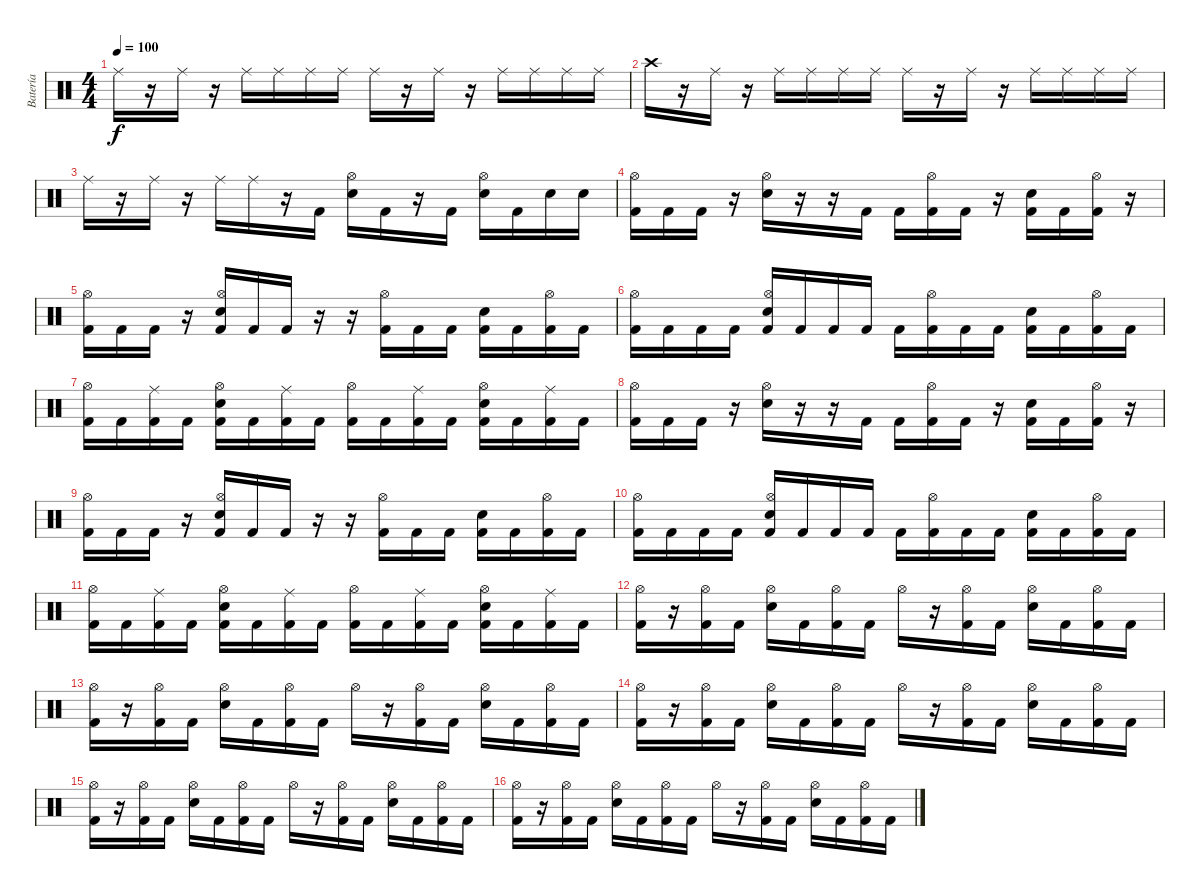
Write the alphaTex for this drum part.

\track ("Batería" "Batería") {instrument percussion}
\staff {score}
\articulation defaults
\ts (4 4)
\tempo 100
\clef neutral
\ks c "Ride (middle)".16{dy f}
r.16 "Ride (middle)".16 r.16 "Ride (middle)".16 "Ride (middle)".16 "Ride (middle)".16 "Ride (middle)".16 "Ride (middle)".16 r.16 "Ride (middle)".16 r.16 "Ride (middle)".16 "Ride (middle)".16 "Ride (middle)".16 "Ride (middle)".16 |
"Crash high (hit)".16 r.16 "Ride (middle)".16 r.16 "Ride (middle)".16 "Ride (middle)".16 "Ride (middle)".16 "Ride (middle)".16 "Ride (middle)".16 r.16 "Ride (middle)".16 r.16 "Ride (middle)".16 "Ride (middle)".16 "Ride (middle)".16 "Ride (middle)".16 |
"Ride (middle)".16 r.16 "Ride (middle)".16 r.16 "Ride (middle)".16 "Ride (middle)".16 r.16 "Kick (hit) 2".16 ("Hi-Hat (open)" "Snare (hit) 2").16 "Kick (hit) 2".16 r.16 "Kick (hit) 2".16 ("Hi-Hat (open)" "Snare (hit) 2").16 "Kick (hit) 2".16 "Snare (hit) 2".16 "Snare (hit) 2".16 |
("Hi-Hat (open)" "Kick (hit) 2").16 "Kick (hit) 2".16 "Kick (hit) 2".16 r.16 ("Hi-Hat (open)" "Snare (hit) 2").16 r.16 r.16 "Kick (hit) 2".16 "Kick (hit) 2".16 ("Hi-Hat (open)" "Kick (hit) 2").16 "Kick (hit) 2".16 r.16 ("Snare (hit) 2" "Kick (hit) 2").16 "Kick (hit) 2".16 ("Hi-Hat (open)" "Kick (hit) 2").16 r.16 |
("Hi-Hat (open)" "Kick (hit) 2").16 "Kick (hit) 2".16 "Kick (hit) 2".16 r.16 ("Hi-Hat (open)" "Snare (hit) 2" "Kick (hit) 2").16 "Kick (hit) 2".16 "Kick (hit) 2".16 r.16 r.16 ("Hi-Hat (open)" "Kick (hit) 2").16 "Kick (hit) 2".16 "Kick (hit) 2".16 ("Snare (hit) 2" "Kick (hit) 2").16 "Kick (hit) 2".16 ("Hi-Hat (open)" "Kick (hit) 2").16 "Kick (hit) 2".16 |
("Hi-Hat (open)" "Kick (hit) 2").16 "Kick (hit) 2".16 "Kick (hit) 2".16 "Kick (hit) 2".16 ("Hi-Hat (open)" "Snare (hit) 2" "Kick (hit) 2").16 "Kick (hit) 2".16 "Kick (hit) 2".16 "Kick (hit) 2".16 "Kick (hit) 2".16 ("Hi-Hat (open)" "Kick (hit) 2").16 "Kick (hit) 2".16 "Kick (hit) 2".16 ("Snare (hit) 2" "Kick (hit) 2").16 "Kick (hit) 2".16 ("Hi-Hat (open)" "Kick (hit) 2").16 "Kick (hit) 2".16 |
("Hi-Hat (open)" "Kick (hit) 2").16 "Kick (hit) 2".16 ("Ride (middle)" "Kick (hit) 2").16 "Kick (hit) 2".16 ("Hi-Hat (open)" "Snare (hit) 2" "Kick (hit) 2").16 "Kick (hit) 2".16 ("Ride (middle)" "Kick (hit) 2").16 "Kick (hit) 2".16 ("Hi-Hat (open)" "Kick (hit) 2").16 "Kick (hit) 2".16 ("Ride (middle)" "Kick (hit) 2").16 "Kick (hit) 2".16 ("Hi-Hat (open)" "Snare (hit) 2" "Kick (hit) 2").16 "Kick (hit) 2".16 ("Ride (middle)" "Kick (hit) 2").16 "Kick (hit) 2".16 |
("Hi-Hat (open)" "Kick (hit) 2").16 "Kick (hit) 2".16 "Kick (hit) 2".16 r.16 ("Hi-Hat (open)" "Snare (hit) 2").16 r.16 r.16 "Kick (hit) 2".16 "Kick (hit) 2".16 ("Hi-Hat (open)" "Kick (hit) 2").16 "Kick (hit) 2".16 r.16 ("Snare (hit) 2" "Kick (hit) 2").16 "Kick (hit) 2".16 ("Hi-Hat (open)" "Kick (hit) 2").16 r.16 |
("Hi-Hat (open)" "Kick (hit) 2").16 "Kick (hit) 2".16 "Kick (hit) 2".16 r.16 ("Hi-Hat (open)" "Snare (hit) 2" "Kick (hit) 2").16 "Kick (hit) 2".16 "Kick (hit) 2".16 r.16 r.16 ("Hi-Hat (open)" "Kick (hit) 2").16 "Kick (hit) 2".16 "Kick (hit) 2".16 ("Snare (hit) 2" "Kick (hit) 2").16 "Kick (hit) 2".16 ("Hi-Hat (open)" "Kick (hit) 2").16 "Kick (hit) 2".16 |
("Hi-Hat (open)" "Kick (hit) 2").16 "Kick (hit) 2".16 "Kick (hit) 2".16 "Kick (hit) 2".16 ("Hi-Hat (open)" "Snare (hit) 2" "Kick (hit) 2").16 "Kick (hit) 2".16 "Kick (hit) 2".16 "Kick (hit) 2".16 "Kick (hit) 2".16 ("Hi-Hat (open)" "Kick (hit) 2").16 "Kick (hit) 2".16 "Kick (hit) 2".16 ("Snare (hit) 2" "Kick (hit) 2").16 "Kick (hit) 2".16 ("Hi-Hat (open)" "Kick (hit) 2").16 "Kick (hit) 2".16 |
("Hi-Hat (open)" "Kick (hit) 2").16 "Kick (hit) 2".16 ("Ride (middle)" "Kick (hit) 2").16 "Kick (hit) 2".16 ("Hi-Hat (open)" "Snare (hit) 2" "Kick (hit) 2").16 "Kick (hit) 2".16 ("Ride (middle)" "Kick (hit) 2").16 "Kick (hit) 2".16 ("Hi-Hat (open)" "Kick (hit) 2").16 "Kick (hit) 2".16 ("Ride (middle)" "Kick (hit) 2").16 "Kick (hit) 2".16 ("Hi-Hat (open)" "Snare (hit) 2" "Kick (hit) 2").16 "Kick (hit) 2".16 ("Ride (middle)" "Kick (hit) 2").16 "Kick (hit) 2".16 |
("Hi-Hat (open)" "Kick (hit) 2").16 r.16 ("Hi-Hat (open)" "Kick (hit) 2").16 "Kick (hit) 2".16 ("Hi-Hat (open)" "Snare (hit) 2").16 "Kick (hit) 2".16 ("Hi-Hat (open)" "Kick (hit) 2").16 "Kick (hit) 2".16 "Hi-Hat (open)".16 r.16 ("Hi-Hat (open)" "Kick (hit) 2").16 "Kick (hit) 2".16 ("Hi-Hat (open)" "Snare (hit) 2").16 "Kick (hit) 2".16 ("Hi-Hat (open)" "Kick (hit) 2").16 "Kick (hit) 2".16 |
("Hi-Hat (open)" "Kick (hit) 2").16 r.16 ("Hi-Hat (open)" "Kick (hit) 2").16 "Kick (hit) 2".16 ("Hi-Hat (open)" "Snare (hit) 2").16 "Kick (hit) 2".16 ("Hi-Hat (open)" "Kick (hit) 2").16 "Kick (hit) 2".16 "Hi-Hat (open)".16 r.16 ("Hi-Hat (open)" "Kick (hit) 2").16 "Kick (hit) 2".16 ("Hi-Hat (open)" "Snare (hit) 2").16 "Kick (hit) 2".16 ("Hi-Hat (open)" "Kick (hit) 2").16 "Kick (hit) 2".16 |
("Hi-Hat (open)" "Kick (hit) 2").16 r.16 ("Hi-Hat (open)" "Kick (hit) 2").16 "Kick (hit) 2".16 ("Hi-Hat (open)" "Snare (hit) 2").16 "Kick (hit) 2".16 ("Hi-Hat (open)" "Kick (hit) 2").16 "Kick (hit) 2".16 "Hi-Hat (open)".16 r.16 ("Hi-Hat (open)" "Kick (hit) 2").16 "Kick (hit) 2".16 ("Hi-Hat (open)" "Snare (hit) 2").16 "Kick (hit) 2".16 ("Hi-Hat (open)" "Kick (hit) 2").16 "Kick (hit) 2".16 |
("Hi-Hat (open)" "Kick (hit) 2").16 r.16 ("Hi-Hat (open)" "Kick (hit) 2").16 "Kick (hit) 2".16 ("Hi-Hat (open)" "Snare (hit) 2").16 "Kick (hit) 2".16 ("Hi-Hat (open)" "Kick (hit) 2").16 "Kick (hit) 2".16 "Hi-Hat (open)".16 r.16 ("Hi-Hat (open)" "Kick (hit) 2").16 "Kick (hit) 2".16 ("Hi-Hat (open)" "Snare (hit) 2").16 "Kick (hit) 2".16 ("Hi-Hat (open)" "Kick (hit) 2").16 "Kick (hit) 2".16 |
("Hi-Hat (open)" "Kick (hit) 2").16 r.16 ("Hi-Hat (open)" "Kick (hit) 2").16 "Kick (hit) 2".16 ("Hi-Hat (open)" "Snare (hit) 2").16 "Kick (hit) 2".16 ("Hi-Hat (open)" "Kick (hit) 2").16 "Kick (hit) 2".16 "Hi-Hat (open)".16 r.16 ("Hi-Hat (open)" "Kick (hit) 2").16 "Kick (hit) 2".16 ("Hi-Hat (open)" "Snare (hit) 2").16 "Kick (hit) 2".16 ("Hi-Hat (open)" "Kick (hit) 2").16 "Kick (hit) 2".16
